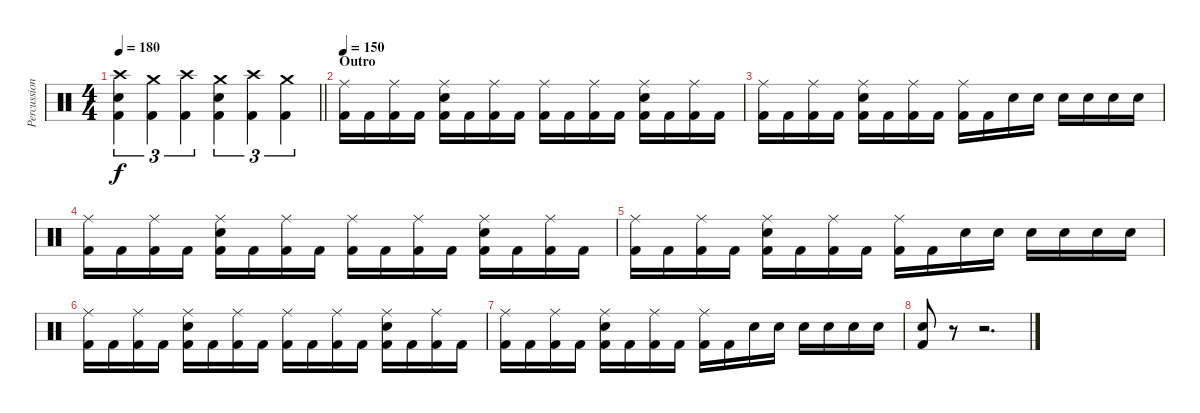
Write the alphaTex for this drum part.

\track ("Percussion" "Percussion") {instrument percussion}
\staff {score}
\articulation defaults
\ts (4 4)
\tempo 180
\clef neutral
\barLineRight lightlight
\ks c
("Crash high (hit)" "Electric Snare (hit)" "Kick (hit) 2").4{tu (3 2) dy f} ("Crash medium (hit)" "Kick (hit) 2").4{tu (3 2)} ("Crash high (hit)" "Kick (hit) 2").4{tu (3 2)} ("Crash medium (hit)" "Electric Snare (hit)" "Kick (hit) 2").4{tu (3 2)} ("Crash high (hit)" "Kick (hit) 2").4{tu (3 2)} ("Crash medium (hit)" "Kick (hit) 2").4{tu (3 2)} |
\section ("" "Outro")
\tempo 150
("Ride (middle)" "Kick (hit) 2").16 "Kick (hit) 2".16 ("Ride (middle)" "Kick (hit) 2").16 "Kick (hit) 2".16 ("Ride (middle)" "Electric Snare (hit)" "Kick (hit) 2").16 "Kick (hit) 2".16 ("Ride (middle)" "Kick (hit) 2").16 "Kick (hit) 2".16 ("Ride (middle)" "Kick (hit) 2").16 "Kick (hit) 2".16 ("Ride (middle)" "Kick (hit) 2").16 "Kick (hit) 2".16 ("Ride (middle)" "Electric Snare (hit)" "Kick (hit) 2").16 "Kick (hit) 2".16 ("Ride (middle)" "Kick (hit) 2").16 "Kick (hit) 2".16 |
("Ride (middle)" "Kick (hit) 2").16 "Kick (hit) 2".16 ("Ride (middle)" "Kick (hit) 2").16 "Kick (hit) 2".16 ("Ride (middle)" "Electric Snare (hit)" "Kick (hit) 2").16 "Kick (hit) 2".16 ("Ride (middle)" "Kick (hit) 2").16 "Kick (hit) 2".16 ("Ride (middle)" "Kick (hit) 2").16 "Kick (hit) 2".16 "Electric Snare (hit)".16 "Electric Snare (hit)".16 "Electric Snare (hit)".16 "Electric Snare (hit)".16 "Electric Snare (hit)".16 "Electric Snare (hit)".16 |
("Ride (middle)" "Kick (hit) 2").16 "Kick (hit) 2".16 ("Ride (middle)" "Kick (hit) 2").16 "Kick (hit) 2".16 ("Ride (middle)" "Electric Snare (hit)" "Kick (hit) 2").16 "Kick (hit) 2".16 ("Ride (middle)" "Kick (hit) 2").16 "Kick (hit) 2".16 ("Ride (middle)" "Kick (hit) 2").16 "Kick (hit) 2".16 ("Ride (middle)" "Kick (hit) 2").16 "Kick (hit) 2".16 ("Ride (middle)" "Electric Snare (hit)" "Kick (hit) 2").16 "Kick (hit) 2".16 ("Ride (middle)" "Kick (hit) 2").16 "Kick (hit) 2".16 |
("Ride (middle)" "Kick (hit) 2").16 "Kick (hit) 2".16 ("Ride (middle)" "Kick (hit) 2").16 "Kick (hit) 2".16 ("Ride (middle)" "Electric Snare (hit)" "Kick (hit) 2").16 "Kick (hit) 2".16 ("Ride (middle)" "Kick (hit) 2").16 "Kick (hit) 2".16 ("Ride (middle)" "Kick (hit) 2").16 "Kick (hit) 2".16 "Electric Snare (hit)".16 "Electric Snare (hit)".16 "Electric Snare (hit)".16 "Electric Snare (hit)".16 "Electric Snare (hit)".16 "Electric Snare (hit)".16 |
("Ride (middle)" "Kick (hit) 2").16 "Kick (hit) 2".16 ("Ride (middle)" "Kick (hit) 2").16 "Kick (hit) 2".16 ("Ride (middle)" "Electric Snare (hit)" "Kick (hit) 2").16 "Kick (hit) 2".16 ("Ride (middle)" "Kick (hit) 2").16 "Kick (hit) 2".16 ("Ride (middle)" "Kick (hit) 2").16 "Kick (hit) 2".16 ("Ride (middle)" "Kick (hit) 2").16 "Kick (hit) 2".16 ("Ride (middle)" "Electric Snare (hit)" "Kick (hit) 2").16 "Kick (hit) 2".16 ("Ride (middle)" "Kick (hit) 2").16 "Kick (hit) 2".16 |
("Ride (middle)" "Kick (hit) 2").16 "Kick (hit) 2".16 ("Ride (middle)" "Kick (hit) 2").16 "Kick (hit) 2".16 ("Ride (middle)" "Electric Snare (hit)" "Kick (hit) 2").16 "Kick (hit) 2".16 ("Ride (middle)" "Kick (hit) 2").16 "Kick (hit) 2".16 ("Ride (middle)" "Kick (hit) 2").16 "Kick (hit) 2".16 "Electric Snare (hit)".16 "Electric Snare (hit)".16 "Electric Snare (hit)".16 "Electric Snare (hit)".16 "Electric Snare (hit)".16 "Electric Snare (hit)".16 |
("Electric Snare (hit)" "Kick (hit) 2").8 r.8 r.2{d}
